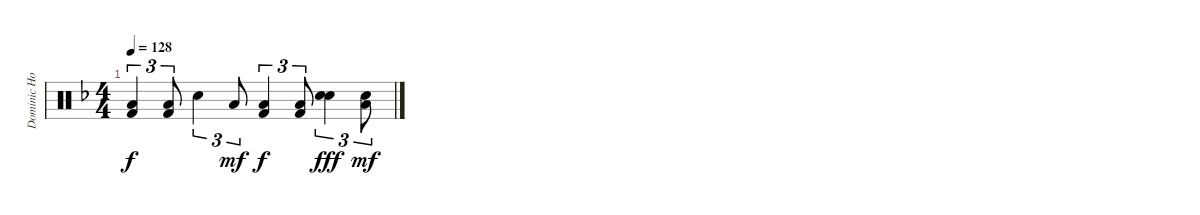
\track ("Dominic Howard Drums" "Dominic Ho") {instrument percussion}
\staff {score}
\articulation defaults
\ts (4 4)
\tempo 128
\clef neutral
\ks dminor
("Low Floor Tom (hit)" "Kick (hit) 2").4{tu (3 2) dy f} ("Low Floor Tom (hit)" "Kick (hit) 2").8{tu (3 2)} "Snare (hit) 2".4{tu (3 2)} "Low Tom (hit)".8{tu (3 2) dy mf} ("Low Floor Tom (hit)" "Kick (hit) 2").4{tu (3 2) dy f} ("Low Floor Tom (hit)" "Kick (hit) 2").8{tu (3 2)} ("Hand Clap (hit)" "Snare (hit) 2").4{tu (3 2) dy fff} ("Hand Clap (hit)" "Low Tom (hit)").8{tu (3 2) dy mf}
